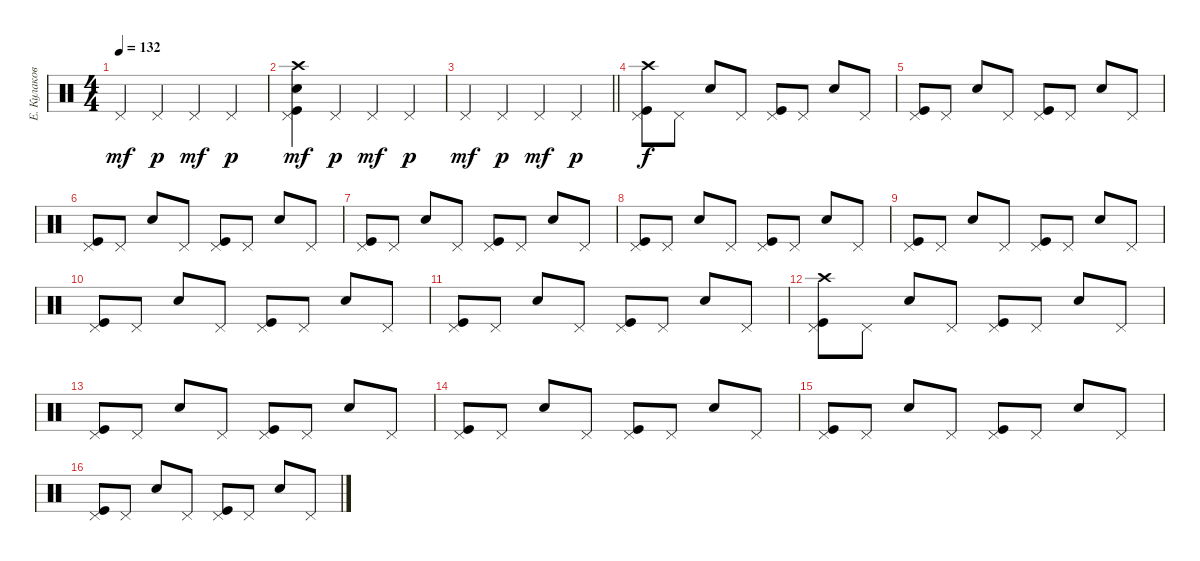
\track ("Е. Кулаков" "Е. Кулаков") {instrument percussion}
\staff {score}
\articulation defaults
\ts (4 4)
\tempo 132
\clef neutral
\ks c "Pedal Hi-Hat (hit)".4{dy mf} "Pedal Hi-Hat (hit)".4{dy p} "Pedal Hi-Hat (hit)".4{dy mf} "Pedal Hi-Hat (hit)".4{dy p}
|
("Snare (hit) 2" "Kick (hit)" "Crash high (hit)" "Pedal Hi-Hat (hit)").4{dy mf} "Pedal Hi-Hat (hit)".4{dy p} "Pedal Hi-Hat (hit)".4{dy mf} "Pedal Hi-Hat (hit)".4{dy p} |
\barLineRight lightlight "Pedal Hi-Hat (hit)".4{dy mf} "Pedal Hi-Hat (hit)".4{dy p} "Pedal Hi-Hat (hit)".4{dy mf} "Pedal Hi-Hat (hit)".4{dy p}
|
\section ("" "")
("Kick (hit)" "Pedal Hi-Hat (hit)" "Crash high (hit)").8{dy f} "Pedal Hi-Hat (hit)".8 "Snare (hit) 2".8 "Pedal Hi-Hat (hit)".8 ("Kick (hit)" "Pedal Hi-Hat (hit)").8 "Pedal Hi-Hat (hit)".8 "Snare (hit) 2".8 "Pedal Hi-Hat (hit)".8 |
("Kick (hit)" "Pedal Hi-Hat (hit)").8 "Pedal Hi-Hat (hit)".8 "Snare (hit) 2".8 "Pedal Hi-Hat (hit)".8 ("Kick (hit)" "Pedal Hi-Hat (hit)").8 "Pedal Hi-Hat (hit)".8 "Snare (hit) 2".8 "Pedal Hi-Hat (hit)".8 |
("Kick (hit)" "Pedal Hi-Hat (hit)").8 "Pedal Hi-Hat (hit)".8 "Snare (hit) 2".8 "Pedal Hi-Hat (hit)".8 ("Kick (hit)" "Pedal Hi-Hat (hit)").8 "Pedal Hi-Hat (hit)".8 "Snare (hit) 2".8 "Pedal Hi-Hat (hit)".8 |
("Kick (hit)" "Pedal Hi-Hat (hit)").8 "Pedal Hi-Hat (hit)".8 "Snare (hit) 2".8 "Pedal Hi-Hat (hit)".8 ("Kick (hit)" "Pedal Hi-Hat (hit)").8 "Pedal Hi-Hat (hit)".8 "Snare (hit) 2".8 "Pedal Hi-Hat (hit)".8 |
("Kick (hit)" "Pedal Hi-Hat (hit)").8 "Pedal Hi-Hat (hit)".8 "Snare (hit) 2".8 "Pedal Hi-Hat (hit)".8 ("Kick (hit)" "Pedal Hi-Hat (hit)").8 "Pedal Hi-Hat (hit)".8 "Snare (hit) 2".8 "Pedal Hi-Hat (hit)".8 |
("Kick (hit)" "Pedal Hi-Hat (hit)").8 "Pedal Hi-Hat (hit)".8 "Snare (hit) 2".8 "Pedal Hi-Hat (hit)".8 ("Kick (hit)" "Pedal Hi-Hat (hit)").8 "Pedal Hi-Hat (hit)".8 "Snare (hit) 2".8 "Pedal Hi-Hat (hit)".8 |
("Kick (hit)" "Pedal Hi-Hat (hit)").8 "Pedal Hi-Hat (hit)".8 "Snare (hit) 2".8 "Pedal Hi-Hat (hit)".8 ("Kick (hit)" "Pedal Hi-Hat (hit)").8 "Pedal Hi-Hat (hit)".8 "Snare (hit) 2".8 "Pedal Hi-Hat (hit)".8 |
("Kick (hit)" "Pedal Hi-Hat (hit)").8 "Pedal Hi-Hat (hit)".8 "Snare (hit) 2".8 "Pedal Hi-Hat (hit)".8 ("Kick (hit)" "Pedal Hi-Hat (hit)").8 "Pedal Hi-Hat (hit)".8 "Snare (hit) 2".8 "Pedal Hi-Hat (hit)".8 |
("Kick (hit)" "Pedal Hi-Hat (hit)" "Crash high (hit)").8 "Pedal Hi-Hat (hit)".8 "Snare (hit) 2".8 "Pedal Hi-Hat (hit)".8 ("Kick (hit)" "Pedal Hi-Hat (hit)").8 "Pedal Hi-Hat (hit)".8 "Snare (hit) 2".8 "Pedal Hi-Hat (hit)".8 |
("Kick (hit)" "Pedal Hi-Hat (hit)").8 "Pedal Hi-Hat (hit)".8 "Snare (hit) 2".8 "Pedal Hi-Hat (hit)".8 ("Kick (hit)" "Pedal Hi-Hat (hit)").8 "Pedal Hi-Hat (hit)".8 "Snare (hit) 2".8 "Pedal Hi-Hat (hit)".8 |
("Kick (hit)" "Pedal Hi-Hat (hit)").8 "Pedal Hi-Hat (hit)".8 "Snare (hit) 2".8 "Pedal Hi-Hat (hit)".8 ("Kick (hit)" "Pedal Hi-Hat (hit)").8 "Pedal Hi-Hat (hit)".8 "Snare (hit) 2".8 "Pedal Hi-Hat (hit)".8 |
("Kick (hit)" "Pedal Hi-Hat (hit)").8 "Pedal Hi-Hat (hit)".8 "Snare (hit) 2".8 "Pedal Hi-Hat (hit)".8 ("Kick (hit)" "Pedal Hi-Hat (hit)").8 "Pedal Hi-Hat (hit)".8 "Snare (hit) 2".8 "Pedal Hi-Hat (hit)".8 |
("Kick (hit)" "Pedal Hi-Hat (hit)").8 "Pedal Hi-Hat (hit)".8 "Snare (hit) 2".8 "Pedal Hi-Hat (hit)".8 ("Kick (hit)" "Pedal Hi-Hat (hit)").8 "Pedal Hi-Hat (hit)".8 "Snare (hit) 2".8 "Pedal Hi-Hat (hit)".8
